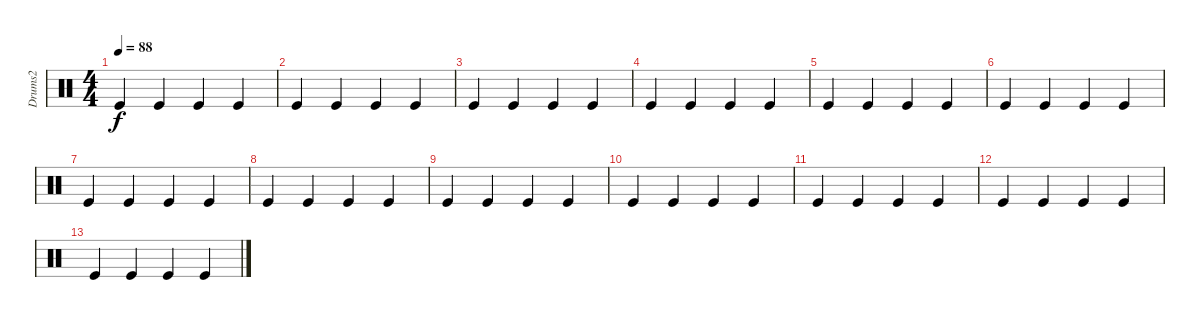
\track ("Drums2" "Drums2") {instrument percussion}
\staff {score}
\articulation defaults
\ts (4 4)
\tempo 88
\clef neutral
\ks c "Kick (hit)".4{dy f} "Kick (hit)".4 "Kick (hit)".4 "Kick (hit)".4
|
"Kick (hit)".4 "Kick (hit)".4 "Kick (hit)".4 "Kick (hit)".4 |
"Kick (hit)".4 "Kick (hit)".4 "Kick (hit)".4 "Kick (hit)".4 |
"Kick (hit)".4 "Kick (hit)".4 "Kick (hit)".4 "Kick (hit)".4 |
"Kick (hit)".4 "Kick (hit)".4 "Kick (hit)".4 "Kick (hit)".4 |
"Kick (hit)".4 "Kick (hit)".4 "Kick (hit)".4 "Kick (hit)".4 |
"Kick (hit)".4 "Kick (hit)".4 "Kick (hit)".4 "Kick (hit)".4 |
"Kick (hit)".4 "Kick (hit)".4 "Kick (hit)".4 "Kick (hit)".4 |
"Kick (hit)".4 "Kick (hit)".4 "Kick (hit)".4 "Kick (hit)".4 |
"Kick (hit)".4{volume 7} "Kick (hit)".4 "Kick (hit)".4 "Kick (hit)".4 |
"Kick (hit)".4 "Kick (hit)".4 "Kick (hit)".4 "Kick (hit)".4 |
"Kick (hit)".4{volume 2} "Kick (hit)".4 "Kick (hit)".4 "Kick (hit)".4 |
"Kick (hit)".4 "Kick (hit)".4 "Kick (hit)".4 "Kick (hit)".4
